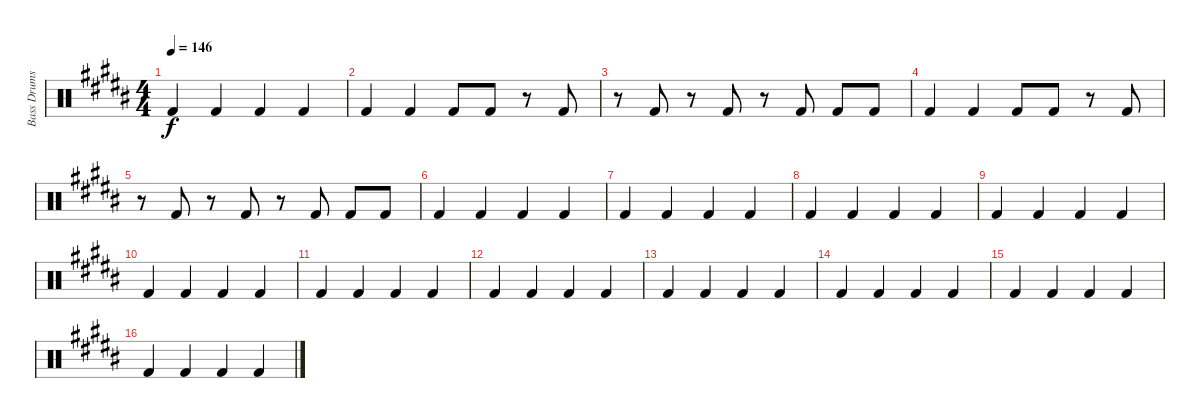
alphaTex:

\track ("Bass Drums" "Bass Drums") {instrument percussion}
\staff {score}
\articulation defaults
\ts (4 4)
\tempo 146
\clef neutral
\ks b "Kick (hit) 2".4{dy f} "Kick (hit) 2".4 "Kick (hit) 2".4 "Kick (hit) 2".4
|
"Kick (hit) 2".4 "Kick (hit) 2".4 "Kick (hit) 2".8 "Kick (hit) 2".8 r.8 "Kick (hit) 2".8 |
r.8 "Kick (hit) 2".8 r.8 "Kick (hit) 2".8 r.8 "Kick (hit) 2".8 "Kick (hit) 2".8 "Kick (hit) 2".8 |
"Kick (hit) 2".4 "Kick (hit) 2".4 "Kick (hit) 2".8 "Kick (hit) 2".8 r.8 "Kick (hit) 2".8 |
r.8 "Kick (hit) 2".8 r.8 "Kick (hit) 2".8 r.8 "Kick (hit) 2".8 "Kick (hit) 2".8 "Kick (hit) 2".8 |
"Kick (hit) 2".4 "Kick (hit) 2".4 "Kick (hit) 2".4 "Kick (hit) 2".4 |
"Kick (hit) 2".4 "Kick (hit) 2".4 "Kick (hit) 2".4 "Kick (hit) 2".4 |
"Kick (hit) 2".4 "Kick (hit) 2".4 "Kick (hit) 2".4 "Kick (hit) 2".4 |
"Kick (hit) 2".4 "Kick (hit) 2".4 "Kick (hit) 2".4 "Kick (hit) 2".4 |
"Kick (hit) 2".4 "Kick (hit) 2".4 "Kick (hit) 2".4 "Kick (hit) 2".4 |
"Kick (hit) 2".4 "Kick (hit) 2".4 "Kick (hit) 2".4 "Kick (hit) 2".4 |
"Kick (hit) 2".4 "Kick (hit) 2".4 "Kick (hit) 2".4 "Kick (hit) 2".4 |
"Kick (hit) 2".4 "Kick (hit) 2".4 "Kick (hit) 2".4 "Kick (hit) 2".4 |
"Kick (hit) 2".4 "Kick (hit) 2".4 "Kick (hit) 2".4 "Kick (hit) 2".4 |
"Kick (hit) 2".4 "Kick (hit) 2".4 "Kick (hit) 2".4 "Kick (hit) 2".4 |
"Kick (hit) 2".4 "Kick (hit) 2".4 "Kick (hit) 2".4 "Kick (hit) 2".4
